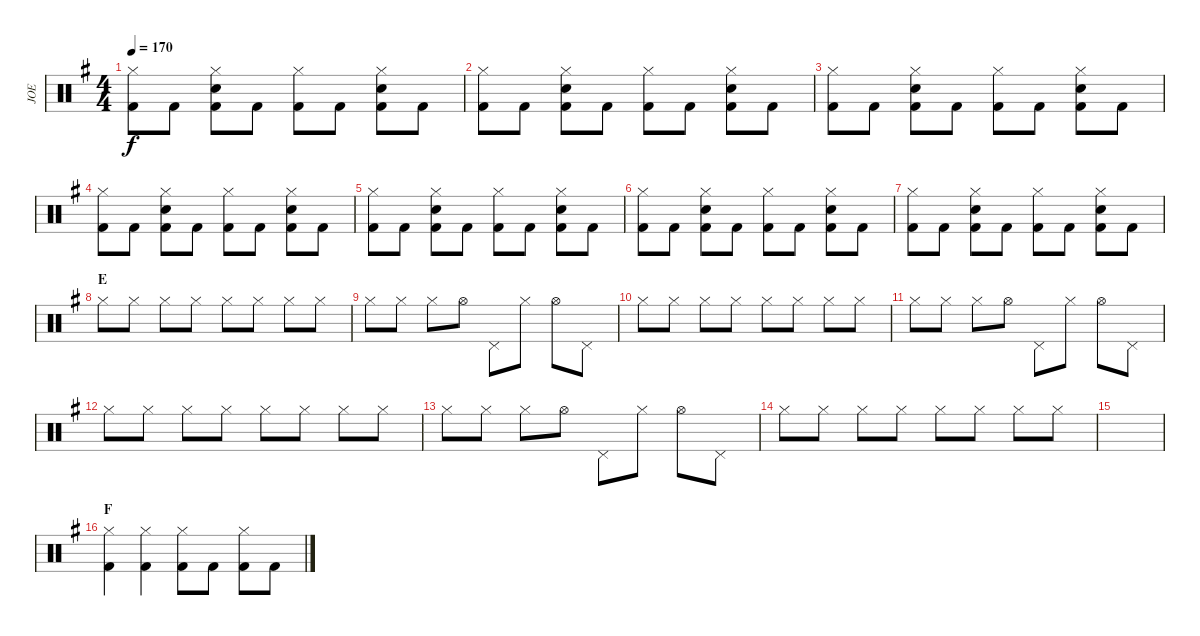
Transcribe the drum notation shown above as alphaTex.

\track ("JOE" "JOE") {instrument percussion}
\staff {score}
\articulation defaults
\ts (4 4)
\tempo 170
\clef neutral
\ks eminor
("Hi-Hat (closed)" "Kick (hit) 2").8{dy f} "Kick (hit) 2".8 ("Hi-Hat (closed)" "Snare (hit) 2" "Kick (hit) 2").8 "Kick (hit) 2".8 ("Hi-Hat (closed)" "Kick (hit) 2").8 "Kick (hit) 2".8 ("Hi-Hat (closed)" "Snare (hit) 2" "Kick (hit) 2").8 "Kick (hit) 2".8 |
("Hi-Hat (closed)" "Kick (hit) 2").8 "Kick (hit) 2".8 ("Hi-Hat (closed)" "Snare (hit) 2" "Kick (hit) 2").8 "Kick (hit) 2".8 ("Hi-Hat (closed)" "Kick (hit) 2").8 "Kick (hit) 2".8 ("Hi-Hat (closed)" "Snare (hit) 2" "Kick (hit) 2").8 "Kick (hit) 2".8 |
("Hi-Hat (closed)" "Kick (hit) 2").8 "Kick (hit) 2".8 ("Hi-Hat (closed)" "Snare (hit) 2" "Kick (hit) 2").8 "Kick (hit) 2".8 ("Hi-Hat (closed)" "Kick (hit) 2").8 "Kick (hit) 2".8 ("Hi-Hat (closed)" "Snare (hit) 2" "Kick (hit) 2").8 "Kick (hit) 2".8 |
("Hi-Hat (closed)" "Kick (hit) 2").8 "Kick (hit) 2".8 ("Hi-Hat (closed)" "Snare (hit) 2" "Kick (hit) 2").8 "Kick (hit) 2".8 ("Hi-Hat (closed)" "Kick (hit) 2").8 "Kick (hit) 2".8 ("Hi-Hat (closed)" "Snare (hit) 2" "Kick (hit) 2").8 "Kick (hit) 2".8 |
("Hi-Hat (closed)" "Kick (hit) 2").8 "Kick (hit) 2".8 ("Hi-Hat (closed)" "Snare (hit) 2" "Kick (hit) 2").8 "Kick (hit) 2".8 ("Hi-Hat (closed)" "Kick (hit) 2").8 "Kick (hit) 2".8 ("Hi-Hat (closed)" "Snare (hit) 2" "Kick (hit) 2").8 "Kick (hit) 2".8 |
("Hi-Hat (closed)" "Kick (hit) 2").8 "Kick (hit) 2".8 ("Hi-Hat (closed)" "Snare (hit) 2" "Kick (hit) 2").8 "Kick (hit) 2".8 ("Hi-Hat (closed)" "Kick (hit) 2").8 "Kick (hit) 2".8 ("Hi-Hat (closed)" "Snare (hit) 2" "Kick (hit) 2").8 "Kick (hit) 2".8 |
("Hi-Hat (closed)" "Kick (hit) 2").8 "Kick (hit) 2".8 ("Hi-Hat (closed)" "Snare (hit) 2" "Kick (hit) 2").8 "Kick (hit) 2".8 ("Hi-Hat (closed)" "Kick (hit) 2").8 "Kick (hit) 2".8 ("Hi-Hat (closed)" "Snare (hit) 2" "Kick (hit) 2").8 "Kick (hit) 2".8 |
\section ("" "E")
"Hi-Hat (closed)".8 "Hi-Hat (closed)".8 "Hi-Hat (closed)".8 "Hi-Hat (closed)".8 "Hi-Hat (closed)".8 "Hi-Hat (closed)".8 "Hi-Hat (closed)".8 "Hi-Hat (closed)".8 |
"Hi-Hat (closed)".8 "Hi-Hat (closed)".8 "Hi-Hat (closed)".8 "Hi-Hat (open)".8 "Pedal Hi-Hat (hit)".8 "Hi-Hat (closed)".8 "Hi-Hat (open)".8 "Pedal Hi-Hat (hit)".8 |
"Hi-Hat (closed)".8 "Hi-Hat (closed)".8 "Hi-Hat (closed)".8 "Hi-Hat (closed)".8 "Hi-Hat (closed)".8 "Hi-Hat (closed)".8 "Hi-Hat (closed)".8 "Hi-Hat (closed)".8 |
"Hi-Hat (closed)".8 "Hi-Hat (closed)".8 "Hi-Hat (closed)".8 "Hi-Hat (open)".8 "Pedal Hi-Hat (hit)".8 "Hi-Hat (closed)".8 "Hi-Hat (open)".8 "Pedal Hi-Hat (hit)".8 |
"Hi-Hat (closed)".8 "Hi-Hat (closed)".8 "Hi-Hat (closed)".8 "Hi-Hat (closed)".8 "Hi-Hat (closed)".8 "Hi-Hat (closed)".8 "Hi-Hat (closed)".8 "Hi-Hat (closed)".8 |
"Hi-Hat (closed)".8 "Hi-Hat (closed)".8 "Hi-Hat (closed)".8 "Hi-Hat (open)".8 "Pedal Hi-Hat (hit)".8 "Hi-Hat (closed)".8 "Hi-Hat (open)".8 "Pedal Hi-Hat (hit)".8 |
"Hi-Hat (closed)".8 "Hi-Hat (closed)".8 "Hi-Hat (closed)".8 "Hi-Hat (closed)".8 "Hi-Hat (closed)".8 "Hi-Hat (closed)".8 "Hi-Hat (closed)".8 "Hi-Hat (closed)".8 |
|
\section ("" "F")
("Hi-Hat (closed)" "Kick (hit) 2").4 ("Hi-Hat (closed)" "Kick (hit) 2").4 ("Hi-Hat (closed)" "Kick (hit) 2").8 "Kick (hit) 2".8 ("Hi-Hat (closed)" "Kick (hit) 2").8 "Kick (hit) 2".8
